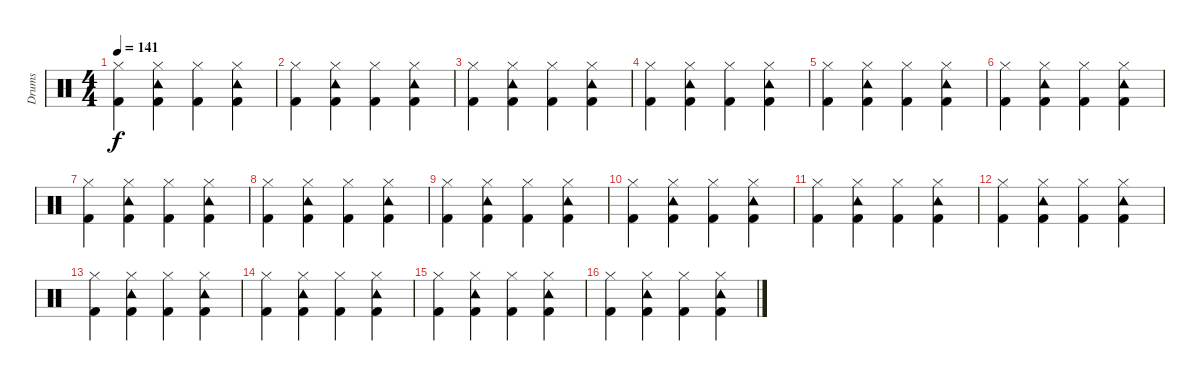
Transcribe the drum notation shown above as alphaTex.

\track ("Drums" "Drums") {instrument percussion}
\staff {score}
\articulation defaults
\ts (4 4)
\tempo 141
\clef neutral
\ks c
("Hi-Hat (closed)" "Kick (hit) 2").4{dy f} ("Hi-Hat (closed)" "Tambourine (hit)" "Kick (hit) 2").4 ("Hi-Hat (closed)" "Kick (hit) 2").4 ("Hi-Hat (closed)" "Tambourine (hit)" "Kick (hit) 2").4 |
("Hi-Hat (closed)" "Kick (hit) 2").4 ("Hi-Hat (closed)" "Tambourine (hit)" "Kick (hit) 2").4 ("Hi-Hat (closed)" "Kick (hit) 2").4 ("Hi-Hat (closed)" "Tambourine (hit)" "Kick (hit) 2").4 |
("Hi-Hat (closed)" "Kick (hit) 2").4 ("Hi-Hat (closed)" "Tambourine (hit)" "Kick (hit) 2").4 ("Hi-Hat (closed)" "Kick (hit) 2").4 ("Hi-Hat (closed)" "Tambourine (hit)" "Kick (hit) 2").4 |
("Hi-Hat (closed)" "Kick (hit) 2").4 ("Hi-Hat (closed)" "Tambourine (hit)" "Kick (hit) 2").4 ("Hi-Hat (closed)" "Kick (hit) 2").4 ("Hi-Hat (closed)" "Tambourine (hit)" "Kick (hit) 2").4 |
("Hi-Hat (closed)" "Kick (hit) 2").4 ("Hi-Hat (closed)" "Tambourine (hit)" "Kick (hit) 2").4 ("Hi-Hat (closed)" "Kick (hit) 2").4 ("Hi-Hat (closed)" "Tambourine (hit)" "Kick (hit) 2").4 |
("Hi-Hat (closed)" "Kick (hit) 2").4 ("Hi-Hat (closed)" "Tambourine (hit)" "Kick (hit) 2").4 ("Hi-Hat (closed)" "Kick (hit) 2").4 ("Hi-Hat (closed)" "Tambourine (hit)" "Kick (hit) 2").4 |
("Hi-Hat (closed)" "Kick (hit) 2").4 ("Hi-Hat (closed)" "Tambourine (hit)" "Kick (hit) 2").4 ("Hi-Hat (closed)" "Kick (hit) 2").4 ("Hi-Hat (closed)" "Tambourine (hit)" "Kick (hit) 2").4 |
("Hi-Hat (closed)" "Kick (hit) 2").4 ("Hi-Hat (closed)" "Tambourine (hit)" "Kick (hit) 2").4 ("Hi-Hat (closed)" "Kick (hit) 2").4 ("Hi-Hat (closed)" "Tambourine (hit)" "Kick (hit) 2").4 |
("Hi-Hat (closed)" "Kick (hit) 2").4 ("Hi-Hat (closed)" "Tambourine (hit)" "Kick (hit) 2").4 ("Hi-Hat (closed)" "Kick (hit) 2").4 ("Hi-Hat (closed)" "Tambourine (hit)" "Kick (hit) 2").4 |
("Hi-Hat (closed)" "Kick (hit) 2").4 ("Hi-Hat (closed)" "Tambourine (hit)" "Kick (hit) 2").4 ("Hi-Hat (closed)" "Kick (hit) 2").4 ("Hi-Hat (closed)" "Tambourine (hit)" "Kick (hit) 2").4 |
("Hi-Hat (closed)" "Kick (hit) 2").4 ("Hi-Hat (closed)" "Tambourine (hit)" "Kick (hit) 2").4 ("Hi-Hat (closed)" "Kick (hit) 2").4 ("Hi-Hat (closed)" "Tambourine (hit)" "Kick (hit) 2").4 |
("Hi-Hat (closed)" "Kick (hit) 2").4 ("Hi-Hat (closed)" "Tambourine (hit)" "Kick (hit) 2").4 ("Hi-Hat (closed)" "Kick (hit) 2").4 ("Hi-Hat (closed)" "Tambourine (hit)" "Kick (hit) 2").4 |
("Hi-Hat (closed)" "Kick (hit) 2").4 ("Hi-Hat (closed)" "Tambourine (hit)" "Kick (hit) 2").4 ("Hi-Hat (closed)" "Kick (hit) 2").4 ("Hi-Hat (closed)" "Tambourine (hit)" "Kick (hit) 2").4 |
("Hi-Hat (closed)" "Kick (hit) 2").4 ("Hi-Hat (closed)" "Tambourine (hit)" "Kick (hit) 2").4 ("Hi-Hat (closed)" "Kick (hit) 2").4 ("Hi-Hat (closed)" "Tambourine (hit)" "Kick (hit) 2").4 |
("Hi-Hat (closed)" "Kick (hit) 2").4 ("Hi-Hat (closed)" "Tambourine (hit)" "Kick (hit) 2").4 ("Hi-Hat (closed)" "Kick (hit) 2").4 ("Hi-Hat (closed)" "Tambourine (hit)" "Kick (hit) 2").4 |
("Hi-Hat (closed)" "Kick (hit) 2").4 ("Hi-Hat (closed)" "Tambourine (hit)" "Kick (hit) 2").4 ("Hi-Hat (closed)" "Kick (hit) 2").4 ("Hi-Hat (closed)" "Tambourine (hit)" "Kick (hit) 2").4
